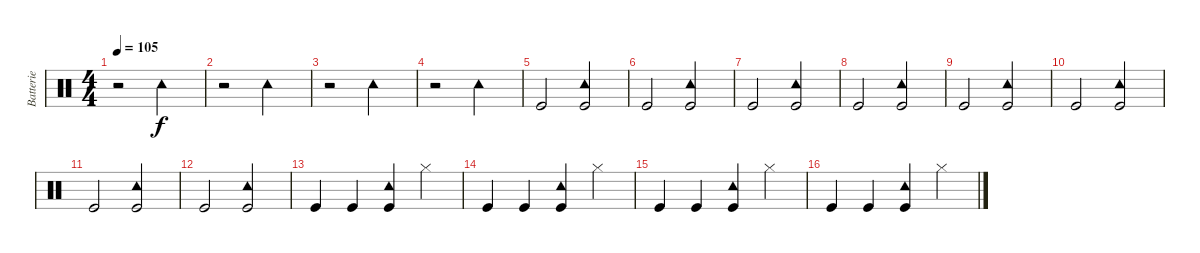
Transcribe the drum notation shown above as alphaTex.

\track ("Batterie" "Batterie") {instrument percussion}
\staff {score}
\articulation defaults
\ts (4 4)
\tempo 105
\clef neutral
\ks c
r.2{dy f} "Tambourine (hit)".2 |
r.2 "Tambourine (hit)".2 |
r.2 "Tambourine (hit)".2 |
r.2 "Tambourine (hit)".2 |
"Kick (hit)".2 ("Tambourine (hit)" "Kick (hit)").2 |
"Kick (hit)".2 ("Tambourine (hit)" "Kick (hit)").2 |
"Kick (hit)".2 ("Tambourine (hit)" "Kick (hit)").2 |
"Kick (hit)".2 ("Tambourine (hit)" "Kick (hit)").2 |
"Kick (hit)".2 ("Tambourine (hit)" "Kick (hit)").2 |
"Kick (hit)".2 ("Tambourine (hit)" "Kick (hit)").2 |
"Kick (hit)".2 ("Tambourine (hit)" "Kick (hit)").2 |
"Kick (hit)".2 ("Tambourine (hit)" "Kick (hit)").2 |
"Kick (hit)".4 "Kick (hit)".4 ("Tambourine (hit)" "Kick (hit)").4 "Hi-Hat (closed)".4 |
"Kick (hit)".4 "Kick (hit)".4 ("Tambourine (hit)" "Kick (hit)").4 "Hi-Hat (closed)".4 |
"Kick (hit)".4 "Kick (hit)".4 ("Tambourine (hit)" "Kick (hit)").4 "Hi-Hat (closed)".4 |
"Kick (hit)".4 "Kick (hit)".4 ("Tambourine (hit)" "Kick (hit)").4 "Hi-Hat (closed)".4
